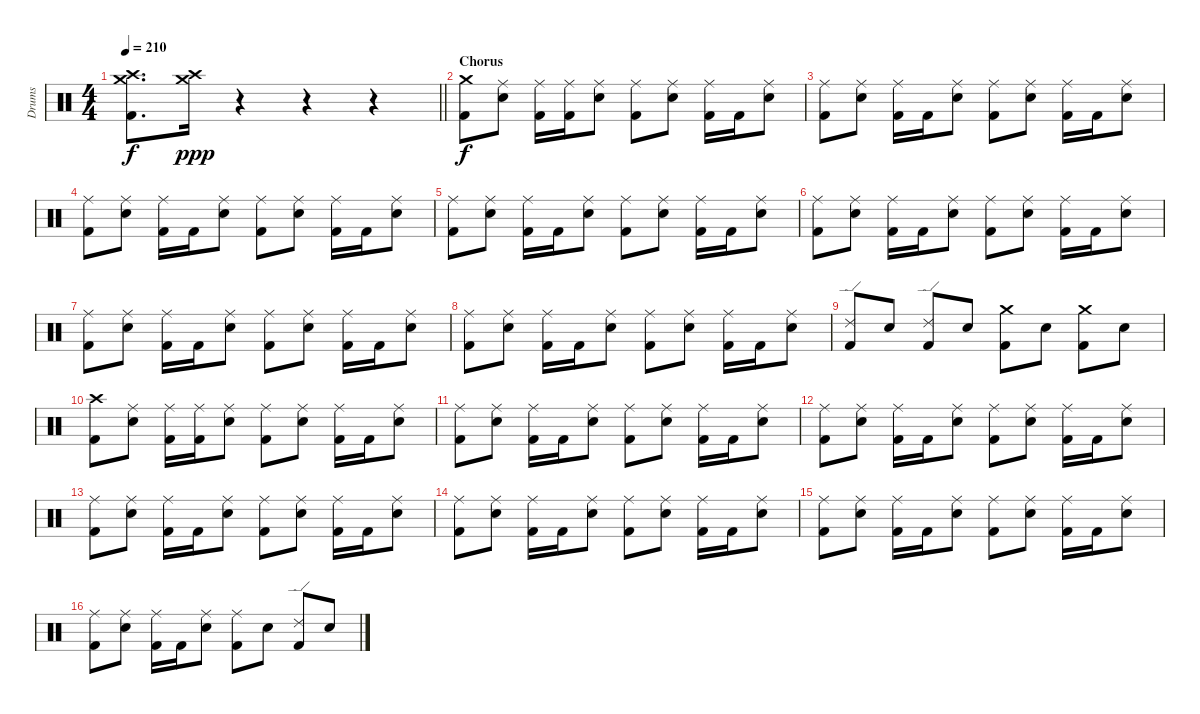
\track ("Drums" "Drums") {instrument percussion}
\staff {score}
\articulation defaults
\ts (4 4)
\tempo 210
\clef neutral
\barLineRight lightlight
\ks c
("Kick (hit) 2" "Crash high (hit)" "Crash medium (hit)").8{d dy f} ("Crash high (hit)" "Crash medium (hit)").16{dy ppp} r.4 r.4 r.4 |
\section ("" "Chorus")
("Kick (hit) 2" "Crash medium (hit)").8{dy f} ("Electric Snare (hit)" "Ride (middle)").8 ("Kick (hit) 2" "Ride (middle)").16 ("Kick (hit) 2" "Ride (middle)").16 ("Electric Snare (hit)" "Ride (middle)").8 ("Kick (hit) 2" "Ride (middle)").8 ("Electric Snare (hit)" "Ride (middle)").8 ("Kick (hit) 2" "Ride (middle)").16 "Kick (hit) 2".16 ("Electric Snare (hit)" "Ride (middle)").8 |
("Kick (hit) 2" "Ride (middle)").8 ("Electric Snare (hit)" "Ride (middle)").8 ("Kick (hit) 2" "Ride (middle)").16 "Kick (hit) 2".16 ("Electric Snare (hit)" "Ride (middle)").8 ("Kick (hit) 2" "Ride (middle)").8 ("Electric Snare (hit)" "Ride (middle)").8 ("Kick (hit) 2" "Ride (middle)").16 "Kick (hit) 2".16 ("Electric Snare (hit)" "Ride (middle)").8 |
("Kick (hit) 2" "Ride (middle)").8 ("Electric Snare (hit)" "Ride (middle)").8 ("Kick (hit) 2" "Ride (middle)").16 "Kick (hit) 2".16 ("Electric Snare (hit)" "Ride (middle)").8 ("Kick (hit) 2" "Ride (middle)").8 ("Electric Snare (hit)" "Ride (middle)").8 ("Kick (hit) 2" "Ride (middle)").16 "Kick (hit) 2".16 ("Electric Snare (hit)" "Ride (middle)").8 |
("Kick (hit) 2" "Ride (middle)").8 ("Electric Snare (hit)" "Ride (middle)").8 ("Kick (hit) 2" "Ride (middle)").16 "Kick (hit) 2".16 ("Electric Snare (hit)" "Ride (middle)").8 ("Kick (hit) 2" "Ride (middle)").8 ("Electric Snare (hit)" "Ride (middle)").8 ("Kick (hit) 2" "Ride (middle)").16 "Kick (hit) 2".16 ("Electric Snare (hit)" "Ride (middle)").8 |
("Kick (hit) 2" "Ride (middle)").8 ("Electric Snare (hit)" "Ride (middle)").8 ("Kick (hit) 2" "Ride (middle)").16 "Kick (hit) 2".16 ("Electric Snare (hit)" "Ride (middle)").8 ("Kick (hit) 2" "Ride (middle)").8 ("Electric Snare (hit)" "Ride (middle)").8 ("Kick (hit) 2" "Ride (middle)").16 "Kick (hit) 2".16 ("Electric Snare (hit)" "Ride (middle)").8 |
("Kick (hit) 2" "Ride (middle)").8 ("Electric Snare (hit)" "Ride (middle)").8 ("Kick (hit) 2" "Ride (middle)").16 "Kick (hit) 2".16 ("Electric Snare (hit)" "Ride (middle)").8 ("Kick (hit) 2" "Ride (middle)").8 ("Electric Snare (hit)" "Ride (middle)").8 ("Kick (hit) 2" "Ride (middle)").16 "Kick (hit) 2".16 ("Electric Snare (hit)" "Ride (middle)").8 |
("Kick (hit) 2" "Ride (middle)").8 ("Electric Snare (hit)" "Ride (middle)").8 ("Kick (hit) 2" "Ride (middle)").16 "Kick (hit) 2".16 ("Electric Snare (hit)" "Ride (middle)").8 ("Kick (hit) 2" "Ride (middle)").8 ("Electric Snare (hit)" "Ride (middle)").8 ("Kick (hit) 2" "Ride (middle)").16 "Kick (hit) 2".16 ("Electric Snare (hit)" "Ride (middle)").8 |
("Kick (hit) 2" "Ride (edge) 2").8 "Electric Snare (hit)".8 ("Kick (hit) 2" "Ride (edge) 2").8 "Electric Snare (hit)".8 ("Kick (hit) 2" "Crash medium (hit)").8 "Electric Snare (hit)".8 ("Kick (hit) 2" "Crash medium (hit)").8 "Electric Snare (hit)".8 |
("Kick (hit) 2" "Crash high (hit)").8 ("Electric Snare (hit)" "Ride (middle)").8 ("Kick (hit) 2" "Ride (middle)").16 ("Kick (hit) 2" "Ride (middle)").16 ("Electric Snare (hit)" "Ride (middle)").8 ("Kick (hit) 2" "Ride (middle)").8 ("Electric Snare (hit)" "Ride (middle)").8 ("Kick (hit) 2" "Ride (middle)").16 "Kick (hit) 2".16 ("Electric Snare (hit)" "Ride (middle)").8 |
("Kick (hit) 2" "Ride (middle)").8 ("Electric Snare (hit)" "Ride (middle)").8 ("Kick (hit) 2" "Ride (middle)").16 "Kick (hit) 2".16 ("Electric Snare (hit)" "Ride (middle)").8 ("Kick (hit) 2" "Ride (middle)").8 ("Electric Snare (hit)" "Ride (middle)").8 ("Kick (hit) 2" "Ride (middle)").16 "Kick (hit) 2".16 ("Electric Snare (hit)" "Ride (middle)").8 |
("Kick (hit) 2" "Ride (middle)").8 ("Electric Snare (hit)" "Ride (middle)").8 ("Kick (hit) 2" "Ride (middle)").16 "Kick (hit) 2".16 ("Electric Snare (hit)" "Ride (middle)").8 ("Kick (hit) 2" "Ride (middle)").8 ("Electric Snare (hit)" "Ride (middle)").8 ("Kick (hit) 2" "Ride (middle)").16 "Kick (hit) 2".16 ("Electric Snare (hit)" "Ride (middle)").8 |
("Kick (hit) 2" "Ride (middle)").8 ("Electric Snare (hit)" "Ride (middle)").8 ("Kick (hit) 2" "Ride (middle)").16 "Kick (hit) 2".16 ("Electric Snare (hit)" "Ride (middle)").8 ("Kick (hit) 2" "Ride (middle)").8 ("Electric Snare (hit)" "Ride (middle)").8 ("Kick (hit) 2" "Ride (middle)").16 "Kick (hit) 2".16 ("Electric Snare (hit)" "Ride (middle)").8 |
("Kick (hit) 2" "Ride (middle)").8 ("Electric Snare (hit)" "Ride (middle)").8 ("Kick (hit) 2" "Ride (middle)").16 "Kick (hit) 2".16 ("Electric Snare (hit)" "Ride (middle)").8 ("Kick (hit) 2" "Ride (middle)").8 ("Electric Snare (hit)" "Ride (middle)").8 ("Kick (hit) 2" "Ride (middle)").16 "Kick (hit) 2".16 ("Electric Snare (hit)" "Ride (middle)").8 |
("Kick (hit) 2" "Ride (middle)").8 ("Electric Snare (hit)" "Ride (middle)").8 ("Kick (hit) 2" "Ride (middle)").16 "Kick (hit) 2".16 ("Electric Snare (hit)" "Ride (middle)").8 ("Kick (hit) 2" "Ride (middle)").8 ("Electric Snare (hit)" "Ride (middle)").8 ("Kick (hit) 2" "Ride (middle)").16 "Kick (hit) 2".16 ("Electric Snare (hit)" "Ride (middle)").8 |
("Kick (hit) 2" "Ride (middle)").8 ("Electric Snare (hit)" "Ride (middle)").8 ("Kick (hit) 2" "Ride (middle)").16 "Kick (hit) 2".16 ("Electric Snare (hit)" "Ride (middle)").8 ("Kick (hit) 2" "Ride (middle)").8 "Electric Snare (hit)".8 ("Kick (hit) 2" "Ride (edge) 2").8 "Electric Snare (hit)".8
